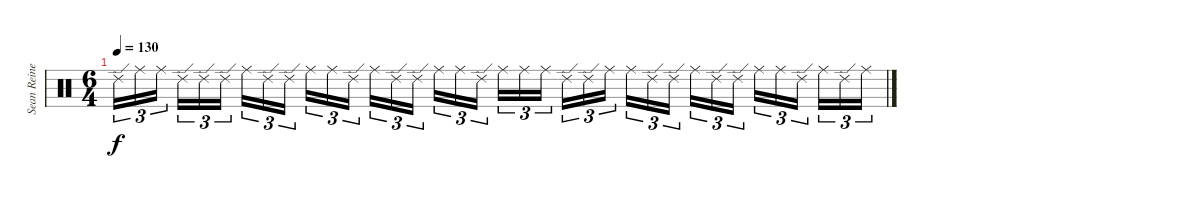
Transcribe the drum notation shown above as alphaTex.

\track ("Sean Reinert " "Sean Reine") {instrument percussion}
\staff {score}
\articulation defaults
\ts (6 4)
\tempo 130
\clef neutral
\ks c "Ride (edge) 2".16{tu (3 2) dy f} "Ride (middle)".16{tu (3 2)} "Ride (middle)".16{tu (3 2)} "Ride (edge) 2".16{tu (3 2)} "Ride (edge) 2".16{tu (3 2)} "Ride (edge) 2".16{tu (3 2)} "Ride (middle)".16{tu (3 2)} "Ride (edge) 2".16{tu (3 2)} "Ride (edge) 2".16{tu (3 2)} "Ride (middle)".16{tu (3 2)} "Ride (middle)".16{tu (3 2)} "Ride (edge) 2".16{tu (3 2)} "Ride (middle)".16{tu (3 2)} "Ride (edge) 2".16{tu (3 2)} "Ride (edge) 2".16{tu (3 2)} "Ride (middle)".16{tu (3 2)} "Ride (middle)".16{tu (3 2)} "Ride (edge) 2".16{tu (3 2)} "Ride (middle)".16{tu (3 2)} "Ride (middle)".16{tu (3 2)} "Ride (middle)".16{tu (3 2)} "Ride (edge) 2".16{tu (3 2)} "Ride (edge) 2".16{tu (3 2)} "Ride (middle)".16{tu (3 2)} "Ride (middle)".16{tu (3 2)} "Ride (edge) 2".16{tu (3 2)} "Ride (edge) 2".16{tu (3 2)} "Ride (middle)".16{tu (3 2)} "Ride (edge) 2".16{tu (3 2)} "Ride (edge) 2".16{tu (3 2)} "Ride (middle)".16{tu (3 2)} "Ride (middle)".16{tu (3 2)} "Ride (edge) 2".16{tu (3 2)} "Ride (middle)".16{tu (3 2)} "Ride (edge) 2".16{tu (3 2)} "Ride (middle)".16{tu (3 2)}
